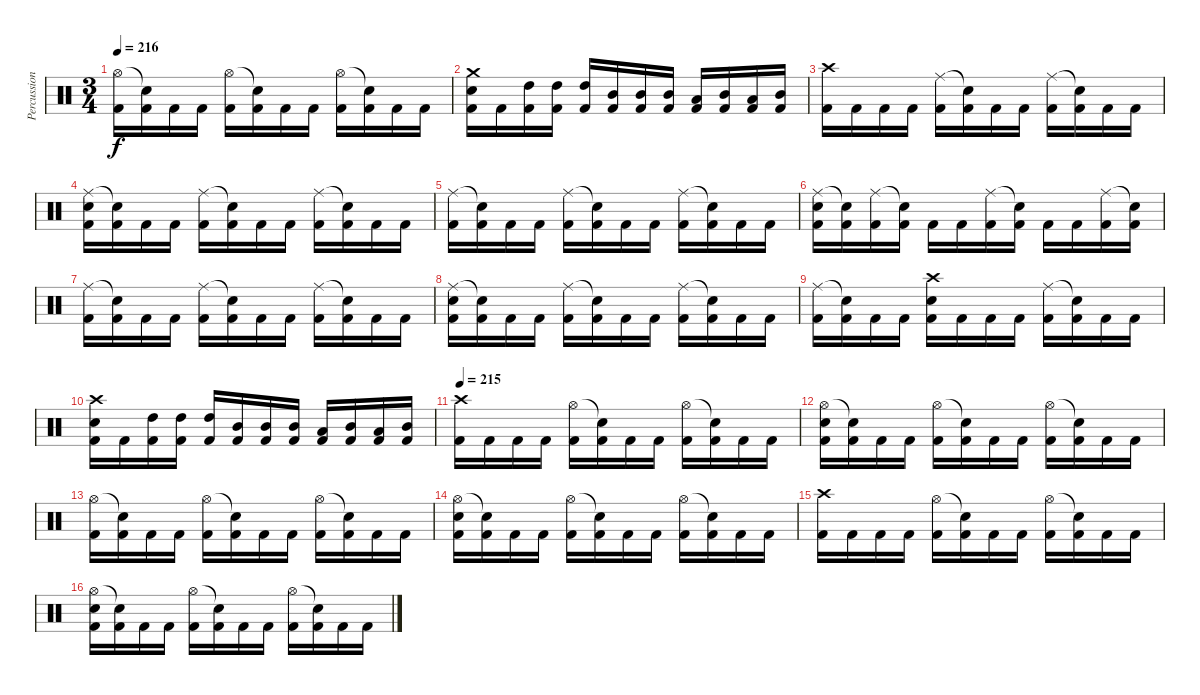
\track ("Percussion" "Percussion") {instrument percussion}
\staff {score}
\articulation defaults
\ts (3 4)
\tempo 216
\clef neutral
\ks c
("Hi-Hat (open)" "Kick (hit) 2").16{dy f} ("Snare (hit)"{t} "Kick (hit) 2").16 "Kick (hit) 2".16 "Kick (hit) 2".16 ("Hi-Hat (open)" "Kick (hit) 2").16 ("Snare (hit)"{t} "Kick (hit) 2").16 "Kick (hit) 2".16 "Kick (hit) 2".16 ("Hi-Hat (open)" "Kick (hit) 2").16 ("Snare (hit)"{t} "Kick (hit) 2").16 "Kick (hit) 2".16 "Kick (hit) 2".16 |
("Crash medium (hit)" "Snare (hit) 2" "Kick (hit) 2").16 "Kick (hit) 2".16 ("High Tom (hit)" "Kick (hit) 2").16 ("High Tom (hit)" "Kick (hit) 2").16 ("High Tom (hit)" "Kick (hit) 2").16 ("Mid Tom (hit)" "Kick (hit) 2").16 ("Mid Tom (hit)" "Kick (hit) 2").16 ("Mid Tom (hit)" "Kick (hit) 2").16 ("Low Tom (hit)" "Kick (hit) 2").16 ("Mid Tom (hit)" "Kick (hit) 2").16 ("Low Tom (hit)" "Kick (hit) 2").16 ("Mid Tom (hit)" "Kick (hit) 2").16 |
("Crash high (hit)" "Kick (hit) 2").16 "Kick (hit) 2".16 "Kick (hit) 2".16 "Kick (hit) 2".16 ("Ride (middle)" "Kick (hit) 2").16 ("Snare (hit)"{t} "Kick (hit) 2").16 "Kick (hit) 2".16 "Kick (hit) 2".16 ("Ride (middle)" "Kick (hit) 2").16 ("Snare (hit)"{t} "Kick (hit) 2").16 "Kick (hit) 2".16 "Kick (hit) 2".16 |
("Ride (middle)" "Snare (hit) 2" "Kick (hit) 2").16 ("Snare (hit)"{t} "Kick (hit) 2").16 "Kick (hit) 2".16 "Kick (hit) 2".16 ("Ride (middle)" "Kick (hit) 2").16 ("Snare (hit)"{t} "Kick (hit) 2").16 "Kick (hit) 2".16 "Kick (hit) 2".16 ("Ride (middle)" "Kick (hit) 2").16 ("Snare (hit)"{t} "Kick (hit) 2").16 "Kick (hit) 2".16 "Kick (hit) 2".16 |
("Ride (middle)" "Kick (hit) 2").16 ("Snare (hit)"{t} "Kick (hit) 2").16 "Kick (hit) 2".16 "Kick (hit) 2".16 ("Ride (middle)" "Kick (hit) 2").16 ("Snare (hit)"{t} "Kick (hit) 2").16 "Kick (hit) 2".16 "Kick (hit) 2".16 ("Ride (middle)" "Kick (hit) 2").16 ("Snare (hit)"{t} "Kick (hit) 2").16 "Kick (hit) 2".16 "Kick (hit) 2".16 |
("Ride (middle)" "Snare (hit) 2" "Kick (hit) 2").16 ("Snare (hit)"{t} "Kick (hit) 2").16 ("Ride (middle)" "Kick (hit) 2").16 ("Snare (hit)"{t} "Kick (hit) 2").16 "Kick (hit) 2".16 "Kick (hit) 2".16 ("Ride (middle)" "Kick (hit) 2").16 ("Snare (hit)"{t} "Kick (hit) 2").16 "Kick (hit) 2".16 "Kick (hit) 2".16 ("Ride (middle)" "Kick (hit) 2").16 ("Snare (hit)"{t} "Kick (hit) 2").16 |
("Ride (middle)" "Kick (hit) 2").16 ("Snare (hit)"{t} "Kick (hit) 2").16 "Kick (hit) 2".16 "Kick (hit) 2".16 ("Ride (middle)" "Kick (hit) 2").16 ("Snare (hit)"{t} "Kick (hit) 2").16 "Kick (hit) 2".16 "Kick (hit) 2".16 ("Ride (middle)" "Kick (hit) 2").16 ("Snare (hit)"{t} "Kick (hit) 2").16 "Kick (hit) 2".16 "Kick (hit) 2".16 |
("Ride (middle)" "Snare (hit) 2" "Kick (hit) 2").16 ("Snare (hit)"{t} "Kick (hit) 2").16 "Kick (hit) 2".16 "Kick (hit) 2".16 ("Ride (middle)" "Kick (hit) 2").16 ("Snare (hit)"{t} "Kick (hit) 2").16 "Kick (hit) 2".16 "Kick (hit) 2".16 ("Ride (middle)" "Kick (hit) 2").16 ("Snare (hit)"{t} "Kick (hit) 2").16 "Kick (hit) 2".16 "Kick (hit) 2".16 |
("Ride (middle)" "Kick (hit) 2").16 ("Snare (hit)"{t} "Kick (hit) 2").16 "Kick (hit) 2".16 "Kick (hit) 2".16 ("Crash high (hit)" "Snare (hit) 2" "Kick (hit) 2").16 "Kick (hit) 2".16 "Kick (hit) 2".16 "Kick (hit) 2".16 ("Ride (middle)" "Kick (hit) 2").16 ("Snare (hit)"{t} "Kick (hit) 2").16 "Kick (hit) 2".16 "Kick (hit) 2".16 |
("Crash high (hit)" "Snare (hit) 2" "Kick (hit) 2").16 "Kick (hit) 2".16 ("High Tom (hit)" "Kick (hit) 2").16 ("High Tom (hit)" "Kick (hit) 2").16 ("High Tom (hit)" "Kick (hit) 2").16 ("Mid Tom (hit)" "Kick (hit) 2").16 ("Mid Tom (hit)" "Kick (hit) 2").16 ("Mid Tom (hit)" "Kick (hit) 2").16 ("Low Tom (hit)" "Kick (hit) 2").16 ("Mid Tom (hit)" "Kick (hit) 2").16 ("Low Tom (hit)" "Kick (hit) 2").16 ("Mid Tom (hit)" "Kick (hit) 2").16 |
\tempo 215
("Crash high (hit)" "Kick (hit) 2").16 "Kick (hit) 2".16 "Kick (hit) 2".16 "Kick (hit) 2".16 ("Hi-Hat (open)" "Kick (hit) 2").16 ("Snare (hit)"{t} "Kick (hit) 2").16 "Kick (hit) 2".16 "Kick (hit) 2".16 ("Hi-Hat (open)" "Kick (hit) 2").16 ("Snare (hit)"{t} "Kick (hit) 2").16 "Kick (hit) 2".16 "Kick (hit) 2".16 |
("Hi-Hat (open)" "Snare (hit) 2" "Kick (hit) 2").16 ("Snare (hit)"{t} "Kick (hit) 2").16 "Kick (hit) 2".16 "Kick (hit) 2".16 ("Hi-Hat (open)" "Kick (hit) 2").16 ("Snare (hit)"{t} "Kick (hit) 2").16 "Kick (hit) 2".16 "Kick (hit) 2".16 ("Hi-Hat (open)" "Kick (hit) 2").16 ("Snare (hit)"{t} "Kick (hit) 2").16 "Kick (hit) 2".16 "Kick (hit) 2".16 |
("Hi-Hat (open)" "Kick (hit) 2").16 ("Snare (hit)"{t} "Kick (hit) 2").16 "Kick (hit) 2".16 "Kick (hit) 2".16 ("Hi-Hat (open)" "Kick (hit) 2").16 ("Snare (hit)"{t} "Kick (hit) 2").16 "Kick (hit) 2".16 "Kick (hit) 2".16 ("Hi-Hat (open)" "Kick (hit) 2").16 ("Snare (hit)"{t} "Kick (hit) 2").16 "Kick (hit) 2".16 "Kick (hit) 2".16 |
("Hi-Hat (open)" "Snare (hit) 2" "Kick (hit) 2").16 ("Snare (hit)"{t} "Kick (hit) 2").16 "Kick (hit) 2".16 "Kick (hit) 2".16 ("Hi-Hat (open)" "Kick (hit) 2").16 ("Snare (hit)"{t} "Kick (hit) 2").16 "Kick (hit) 2".16 "Kick (hit) 2".16 ("Hi-Hat (open)" "Kick (hit) 2").16 ("Snare (hit)"{t} "Kick (hit) 2").16 "Kick (hit) 2".16 "Kick (hit) 2".16 |
("Crash high (hit)" "Kick (hit) 2").16 "Kick (hit) 2".16 "Kick (hit) 2".16 "Kick (hit) 2".16 ("Hi-Hat (open)" "Kick (hit) 2").16 ("Snare (hit)"{t} "Kick (hit) 2").16 "Kick (hit) 2".16 "Kick (hit) 2".16 ("Hi-Hat (open)" "Kick (hit) 2").16 ("Snare (hit)"{t} "Kick (hit) 2").16 "Kick (hit) 2".16 "Kick (hit) 2".16 |
("Hi-Hat (open)" "Snare (hit) 2" "Kick (hit) 2").16 ("Snare (hit)"{t} "Kick (hit) 2").16 "Kick (hit) 2".16 "Kick (hit) 2".16 ("Hi-Hat (open)" "Kick (hit) 2").16 ("Snare (hit)"{t} "Kick (hit) 2").16 "Kick (hit) 2".16 "Kick (hit) 2".16 ("Hi-Hat (open)" "Kick (hit) 2").16 ("Snare (hit)"{t} "Kick (hit) 2").16 "Kick (hit) 2".16 "Kick (hit) 2".16
